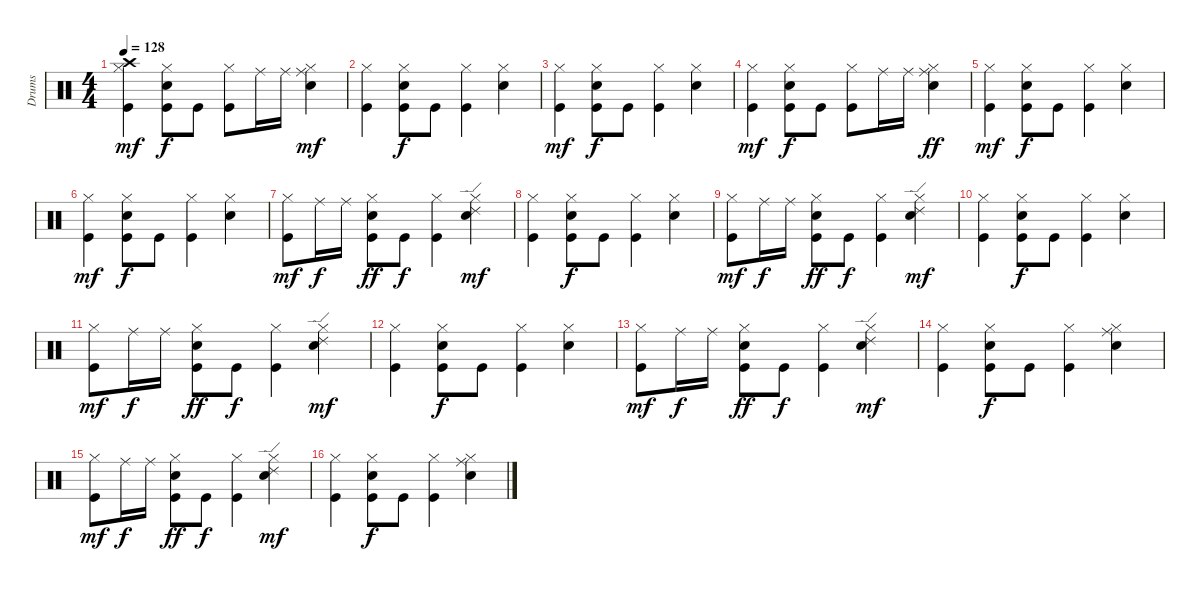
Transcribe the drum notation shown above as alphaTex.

\track ("Drums               " "Drums     ") {instrument percussion}
\staff {score}
\articulation defaults
\ts (4 4)
\tempo 128
\clef neutral
\ks c
("Crash high (hit)" "Hi-Hat (closed)" "Kick (hit)").4{dy mf} ("Hi-Hat (closed)" "Electric Snare (hit)" "Kick (hit)").8{dy f} "Kick (hit)".8 ("Hi-Hat (closed)" "Kick (hit)").8 "Ride (middle)".16 "Ride (middle)".16 ("Ride (middle)" "Hi-Hat (closed)" "Electric Snare (hit)").4{dy mf} |
("Hi-Hat (closed)" "Kick (hit)").4 ("Hi-Hat (closed)" "Electric Snare (hit)" "Kick (hit)").8{dy f} "Kick (hit)".8 ("Hi-Hat (closed)" "Kick (hit)").4 ("Hi-Hat (closed)" "Electric Snare (hit)").4 |
("Hi-Hat (closed)" "Kick (hit)").4{dy mf} ("Hi-Hat (closed)" "Electric Snare (hit)" "Kick (hit)").8{dy f} "Kick (hit)".8 ("Hi-Hat (closed)" "Kick (hit)").4 ("Hi-Hat (closed)" "Electric Snare (hit)").4 |
("Hi-Hat (closed)" "Kick (hit)").4{dy mf} ("Hi-Hat (closed)" "Electric Snare (hit)" "Kick (hit)").8{dy f} "Kick (hit)".8 ("Hi-Hat (closed)" "Kick (hit)").8 "Ride (middle)".16 "Ride (middle)".16 ("Ride (middle)" "Hi-Hat (closed)" "Electric Snare (hit)").4{dy ff} |
("Hi-Hat (closed)" "Kick (hit)").4{dy mf} ("Hi-Hat (closed)" "Electric Snare (hit)" "Kick (hit)").8{dy f} "Kick (hit)".8 ("Hi-Hat (closed)" "Kick (hit)").4 ("Hi-Hat (closed)" "Electric Snare (hit)").4 |
("Hi-Hat (closed)" "Kick (hit)").4{dy mf} ("Hi-Hat (closed)" "Electric Snare (hit)" "Kick (hit)").8{dy f} "Kick (hit)".8 ("Hi-Hat (closed)" "Kick (hit)").4 ("Hi-Hat (closed)" "Electric Snare (hit)").4 |
("Hi-Hat (closed)" "Kick (hit)").8{dy mf} "Ride (middle)".16{dy f} "Ride (middle)".16 ("Hi-Hat (closed)" "Electric Snare (hit)" "Kick (hit)").8{dy ff} "Kick (hit)".8{dy f} ("Hi-Hat (closed)" "Kick (hit)").4 ("Ride (edge) 2" "Hi-Hat (closed)" "Electric Snare (hit)").4{dy mf} |
("Hi-Hat (closed)" "Kick (hit)").4 ("Hi-Hat (closed)" "Electric Snare (hit)" "Kick (hit)").8{dy f} "Kick (hit)".8 ("Hi-Hat (closed)" "Kick (hit)").4 ("Hi-Hat (closed)" "Electric Snare (hit)").4 |
("Hi-Hat (closed)" "Kick (hit)").8{dy mf} "Ride (middle)".16{dy f} "Ride (middle)".16 ("Hi-Hat (closed)" "Electric Snare (hit)" "Kick (hit)").8{dy ff} "Kick (hit)".8{dy f} ("Hi-Hat (closed)" "Kick (hit)").4 ("Ride (edge) 2" "Hi-Hat (closed)" "Electric Snare (hit)").4{dy mf} |
("Hi-Hat (closed)" "Kick (hit)").4 ("Hi-Hat (closed)" "Electric Snare (hit)" "Kick (hit)").8{dy f} "Kick (hit)".8 ("Hi-Hat (closed)" "Kick (hit)").4 ("Hi-Hat (closed)" "Electric Snare (hit)").4 |
("Hi-Hat (closed)" "Kick (hit)").8{dy mf} "Ride (middle)".16{dy f} "Ride (middle)".16 ("Hi-Hat (closed)" "Electric Snare (hit)" "Kick (hit)").8{dy ff} "Kick (hit)".8{dy f} ("Hi-Hat (closed)" "Kick (hit)").4 ("Ride (edge) 2" "Hi-Hat (closed)" "Electric Snare (hit)").4{dy mf} |
("Hi-Hat (closed)" "Kick (hit)").4 ("Hi-Hat (closed)" "Electric Snare (hit)" "Kick (hit)").8{dy f} "Kick (hit)".8 ("Hi-Hat (closed)" "Kick (hit)").4 ("Hi-Hat (closed)" "Electric Snare (hit)").4 |
("Hi-Hat (closed)" "Kick (hit)").8{dy mf} "Ride (middle)".16{dy f} "Ride (middle)".16 ("Hi-Hat (closed)" "Electric Snare (hit)" "Kick (hit)").8{dy ff} "Kick (hit)".8{dy f} ("Hi-Hat (closed)" "Kick (hit)").4 ("Ride (edge) 2" "Hi-Hat (closed)" "Electric Snare (hit)").4{dy mf} |
("Hi-Hat (closed)" "Kick (hit)").4 ("Hi-Hat (closed)" "Electric Snare (hit)" "Kick (hit)").8{dy f} "Kick (hit)".8 ("Hi-Hat (closed)" "Kick (hit)").4 ("Ride (middle)" "Hi-Hat (closed)" "Electric Snare (hit)").4 |
("Hi-Hat (closed)" "Kick (hit)").8{dy mf} "Ride (middle)".16{dy f} "Ride (middle)".16 ("Hi-Hat (closed)" "Electric Snare (hit)" "Kick (hit)").8{dy ff} "Kick (hit)".8{dy f} ("Hi-Hat (closed)" "Kick (hit)").4 ("Ride (edge) 2" "Hi-Hat (closed)" "Electric Snare (hit)").4{dy mf} |
("Hi-Hat (closed)" "Kick (hit)").4 ("Hi-Hat (closed)" "Electric Snare (hit)" "Kick (hit)").8{dy f} "Kick (hit)".8 ("Hi-Hat (closed)" "Kick (hit)").4 ("Ride (middle)" "Hi-Hat (closed)" "Electric Snare (hit)").4
